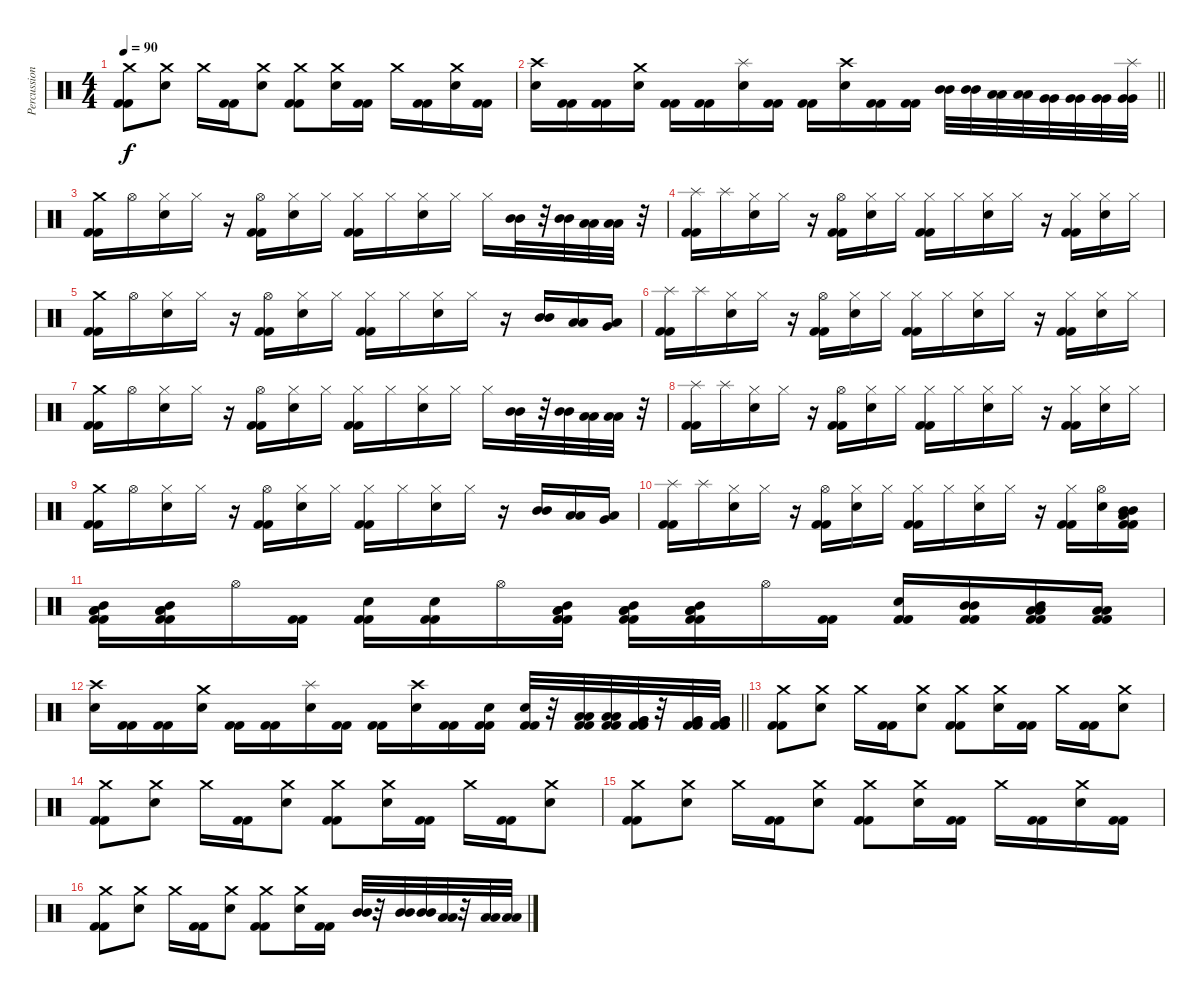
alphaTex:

\track ("Percussion" "Percussion") {instrument percussion}
\staff {score}
\articulation defaults
\ts (4 4)
\tempo 90
\clef neutral
\ks c
("Crash medium (hit)" "Kick (hit) 2" "Kick (hit) 2").8{dy f} ("Crash medium (hit)" "Electric Snare (hit)").8 "Crash medium (hit)".16 ("Kick (hit) 2" "Kick (hit) 2").16 ("Crash medium (hit)" "Electric Snare (hit)").8 ("Crash medium (hit)" "Kick (hit) 2" "Kick (hit) 2").8 ("Crash medium (hit)" "Electric Snare (hit)").16 ("Kick (hit) 2" "Kick (hit) 2").16 "Crash medium (hit)".16 ("Kick (hit) 2" "Kick (hit) 2").16 ("Crash medium (hit)" "Electric Snare (hit)").16 ("Kick (hit) 2" "Kick (hit) 2").16 |
\barLineRight lightlight
("Crash high (hit)" "Electric Snare (hit)").16 ("Kick (hit) 2" "Kick (hit) 2").16 ("Kick (hit) 2" "Kick (hit) 2").16 ("Crash medium (hit)" "Electric Snare (hit)").16 ("Kick (hit) 2" "Kick (hit) 2").16 ("Kick (hit) 2" "Kick (hit) 2").16 ("Splash (hit)" "Electric Snare (hit)").16 ("Kick (hit) 2" "Kick (hit) 2").16 ("Kick (hit) 2" "Kick (hit) 2").16 ("Crash high (hit)" "Electric Snare (hit)").16 ("Kick (hit) 2" "Kick (hit) 2").16 ("Kick (hit) 2" "Kick (hit) 2").16 ("Mid Tom (hit)" "Mid Tom (hit)").32 ("Mid Tom (hit)" "Mid Tom (hit)").32 ("Low Tom (hit)" "Low Tom (hit)").32 ("Low Tom (hit)" "Low Tom (hit)").32 ("Very Low Tom (hit)" "Very Low Tom (hit)").32 ("Very Low Tom (hit)" "Very Low Tom (hit)").32 ("Very Low Tom (hit)" "Very Low Tom (hit)").32 ("Splash (hit)" "Very Low Tom (hit)" "Very Low Tom (hit)").32 |
("Crash medium (hit)" "Kick (hit) 2" "Kick (hit) 2").16 "Hi-Hat (open)".16 ("Hi-Hat (closed)" "Electric Snare (hit)").16 "Hi-Hat (closed)".16 r.16 ("Hi-Hat (open)" "Kick (hit) 2" "Kick (hit) 2").16 ("Hi-Hat (closed)" "Electric Snare (hit)").16 "Hi-Hat (closed)".16 ("Hi-Hat (closed)" "Kick (hit) 2" "Kick (hit) 2").16 "Hi-Hat (closed)".16 ("Hi-Hat (closed)" "Electric Snare (hit)").16 "Hi-Hat (closed)".16 "Hi-Hat (closed)".16 ("Mid Tom (hit)" "Mid Tom (hit)").32 r.32 ("Mid Tom (hit)" "Mid Tom (hit)").32 ("Low Tom (hit)" "Low Tom (hit)").32 ("Low Tom (hit)" "Low Tom (hit)").32 r.32 |
("Splash (hit)" "Kick (hit) 2" "Kick (hit) 2").16 "Splash (hit)".16 ("Hi-Hat (closed)" "Electric Snare (hit)").16 "Hi-Hat (closed)".16 r.16 ("Hi-Hat (open)" "Kick (hit) 2" "Kick (hit) 2").16 ("Hi-Hat (closed)" "Electric Snare (hit)").16 "Hi-Hat (closed)".16 ("Hi-Hat (closed)" "Kick (hit) 2" "Kick (hit) 2").16 "Hi-Hat (closed)".16 ("Hi-Hat (closed)" "Electric Snare (hit)").16 "Hi-Hat (closed)".16 r.16 ("Hi-Hat (closed)" "Kick (hit) 2" "Kick (hit) 2").16 ("Hi-Hat (closed)" "Electric Snare (hit)").16 "Hi-Hat (closed)".16 |
("Crash medium (hit)" "Kick (hit) 2" "Kick (hit) 2").16 "Hi-Hat (open)".16 ("Hi-Hat (closed)" "Electric Snare (hit)").16 "Hi-Hat (closed)".16 r.16 ("Hi-Hat (open)" "Kick (hit) 2" "Kick (hit) 2").16 ("Hi-Hat (closed)" "Electric Snare (hit)").16 "Hi-Hat (closed)".16 ("Hi-Hat (closed)" "Kick (hit) 2" "Kick (hit) 2").16 "Hi-Hat (closed)".16 ("Hi-Hat (closed)" "Electric Snare (hit)").16 "Hi-Hat (closed)".16 r.16 ("Mid Tom (hit)" "Mid Tom (hit)").16 ("Low Tom (hit)" "Low Tom (hit)").16 ("Low Tom (hit)" "Very Low Tom (hit)").16 |
("Splash (hit)" "Kick (hit) 2" "Kick (hit) 2").16 "Splash (hit)".16 ("Hi-Hat (closed)" "Electric Snare (hit)").16 "Hi-Hat (closed)".16 r.16 ("Hi-Hat (open)" "Kick (hit) 2" "Kick (hit) 2").16 ("Hi-Hat (closed)" "Electric Snare (hit)").16 "Hi-Hat (closed)".16 ("Hi-Hat (closed)" "Kick (hit) 2" "Kick (hit) 2").16 "Hi-Hat (closed)".16 ("Hi-Hat (closed)" "Electric Snare (hit)").16 "Hi-Hat (closed)".16 r.16 ("Hi-Hat (closed)" "Kick (hit) 2" "Kick (hit) 2").16 ("Hi-Hat (closed)" "Electric Snare (hit)").16 "Hi-Hat (closed)".16 |
("Crash medium (hit)" "Kick (hit) 2" "Kick (hit) 2").16 "Hi-Hat (open)".16 ("Hi-Hat (closed)" "Electric Snare (hit)").16 "Hi-Hat (closed)".16 r.16 ("Hi-Hat (open)" "Kick (hit) 2" "Kick (hit) 2").16 ("Hi-Hat (closed)" "Electric Snare (hit)").16 "Hi-Hat (closed)".16 ("Hi-Hat (closed)" "Kick (hit) 2" "Kick (hit) 2").16 "Hi-Hat (closed)".16 ("Hi-Hat (closed)" "Electric Snare (hit)").16 "Hi-Hat (closed)".16 "Hi-Hat (closed)".16 ("Mid Tom (hit)" "Mid Tom (hit)").32 r.32 ("Mid Tom (hit)" "Mid Tom (hit)").32 ("Low Tom (hit)" "Low Tom (hit)").32 ("Low Tom (hit)" "Low Tom (hit)").32 r.32 |
("Splash (hit)" "Kick (hit) 2" "Kick (hit) 2").16 "Splash (hit)".16 ("Hi-Hat (closed)" "Electric Snare (hit)").16 "Hi-Hat (closed)".16 r.16 ("Hi-Hat (open)" "Kick (hit) 2" "Kick (hit) 2").16 ("Hi-Hat (closed)" "Electric Snare (hit)").16 "Hi-Hat (closed)".16 ("Hi-Hat (closed)" "Kick (hit) 2" "Kick (hit) 2").16 "Hi-Hat (closed)".16 ("Hi-Hat (closed)" "Electric Snare (hit)").16 "Hi-Hat (closed)".16 r.16 ("Hi-Hat (closed)" "Kick (hit) 2" "Kick (hit) 2").16 ("Hi-Hat (closed)" "Electric Snare (hit)").16 "Hi-Hat (closed)".16 |
("Crash medium (hit)" "Kick (hit) 2" "Kick (hit) 2").16 "Hi-Hat (open)".16 ("Hi-Hat (closed)" "Electric Snare (hit)").16 "Hi-Hat (closed)".16 r.16 ("Hi-Hat (open)" "Kick (hit) 2" "Kick (hit) 2").16 ("Hi-Hat (closed)" "Electric Snare (hit)").16 "Hi-Hat (closed)".16 ("Hi-Hat (closed)" "Kick (hit) 2" "Kick (hit) 2").16 "Hi-Hat (closed)".16 ("Hi-Hat (closed)" "Electric Snare (hit)").16 "Hi-Hat (closed)".16 r.16 ("Mid Tom (hit)" "Mid Tom (hit)").16 ("Low Tom (hit)" "Low Tom (hit)").16 ("Low Tom (hit)" "Very Low Tom (hit)").16 |
("Splash (hit)" "Kick (hit) 2" "Kick (hit) 2").16 "Splash (hit)".16 ("Hi-Hat (closed)" "Electric Snare (hit)").16 "Hi-Hat (closed)".16 r.16 ("Hi-Hat (open)" "Kick (hit) 2" "Kick (hit) 2").16 ("Hi-Hat (closed)" "Electric Snare (hit)").16 "Hi-Hat (closed)".16 ("Hi-Hat (closed)" "Kick (hit) 2" "Kick (hit) 2").16 "Hi-Hat (closed)".16 ("Hi-Hat (closed)" "Electric Snare (hit)").16 "Hi-Hat (closed)".16 r.16 ("Hi-Hat (closed)" "Kick (hit) 2" "Kick (hit) 2").16 ("Hi-Hat (open)" "Electric Snare (hit)").16 ("Mid Tom (hit)" "Mid Tom (hit)" "Low Tom (hit)" "Kick (hit) 2" "Kick (hit) 2").16 |
("Mid Tom (hit)" "Low Tom (hit)" "Low Tom (hit)" "Kick (hit) 2" "Kick (hit) 2").16 ("Mid Tom (hit)" "Low Tom (hit)" "Low Tom (hit)" "Kick (hit) 2" "Kick (hit) 2").16 "Hi-Hat (open)".16 ("Kick (hit) 2" "Kick (hit) 2").16 ("Electric Snare (hit)" "Kick (hit) 2" "Kick (hit) 2").16 ("Electric Snare (hit)" "Kick (hit) 2" "Kick (hit) 2").16 "Hi-Hat (open)".16 ("Mid Tom (hit)" "Low Tom (hit)" "Low Tom (hit)" "Kick (hit) 2" "Kick (hit) 2").16 ("Mid Tom (hit)" "Low Tom (hit)" "Low Tom (hit)" "Kick (hit) 2" "Kick (hit) 2").16 ("Mid Tom (hit)" "Low Tom (hit)" "Low Tom (hit)" "Kick (hit) 2" "Kick (hit) 2").16 "Hi-Hat (open)".16 ("Kick (hit) 2" "Kick (hit) 2").16 ("Electric Snare (hit)" "Kick (hit) 2" "Kick (hit) 2").16 ("Mid Tom (hit)" "Mid Tom (hit)" "Kick (hit) 2" "Kick (hit) 2").16 ("Mid Tom (hit)" "Low Tom (hit)" "Low Tom (hit)" "Kick (hit) 2" "Kick (hit) 2").16 ("Low Tom (hit)" "Low Tom (hit)" "Kick (hit) 2" "Kick (hit) 2").16 |
\barLineRight lightlight
("Crash high (hit)" "Electric Snare (hit)").16 ("Kick (hit) 2" "Kick (hit) 2").16 ("Kick (hit) 2" "Kick (hit) 2").16 ("Crash medium (hit)" "Electric Snare (hit)").16 ("Kick (hit) 2" "Kick (hit) 2").16 ("Kick (hit) 2" "Kick (hit) 2").16 ("Splash (hit)" "Electric Snare (hit)").16 ("Kick (hit) 2" "Kick (hit) 2").16 ("Kick (hit) 2" "Kick (hit) 2").16 ("Crash high (hit)" "Electric Snare (hit)").16 ("Kick (hit) 2" "Kick (hit) 2").16 ("Electric Snare (hit)" "Kick (hit) 2" "Kick (hit) 2").16 ("Electric Snare (hit)" "Kick (hit) 2" "Kick (hit) 2").32 r.32 ("Low Tom (hit)" "Low Tom (hit)" "Kick (hit) 2" "Kick (hit) 2").32 ("Low Tom (hit)" "Low Tom (hit)" "Kick (hit) 2" "Kick (hit) 2").32 ("Very Low Tom (hit)" "Very Low Tom (hit)" "Kick (hit) 2" "Kick (hit) 2").32 r.32 ("Very Low Tom (hit)" "Very Low Tom (hit)" "Kick (hit) 2" "Kick (hit) 2").32 ("Very Low Tom (hit)" "Very Low Tom (hit)" "Kick (hit) 2" "Kick (hit) 2").32 |
\section ("" "")
("Crash medium (hit)" "Kick (hit) 2" "Kick (hit) 2").8 ("Crash medium (hit)" "Electric Snare (hit)").8 "Crash medium (hit)".16 ("Kick (hit) 2" "Kick (hit) 2").16 ("Crash medium (hit)" "Electric Snare (hit)").8 ("Crash medium (hit)" "Kick (hit) 2" "Kick (hit) 2").8 ("Crash medium (hit)" "Electric Snare (hit)").16 ("Kick (hit) 2" "Kick (hit) 2").16 "Crash medium (hit)".16 ("Kick (hit) 2" "Kick (hit) 2").16 ("Crash medium (hit)" "Electric Snare (hit)").8 |
("Crash medium (hit)" "Kick (hit) 2" "Kick (hit) 2").8 ("Crash medium (hit)" "Electric Snare (hit)").8 "Crash medium (hit)".16 ("Kick (hit) 2" "Kick (hit) 2").16 ("Crash medium (hit)" "Electric Snare (hit)").8 ("Crash medium (hit)" "Kick (hit) 2" "Kick (hit) 2").8 ("Crash medium (hit)" "Electric Snare (hit)").16 ("Kick (hit) 2" "Kick (hit) 2").16 "Crash medium (hit)".16 ("Kick (hit) 2" "Kick (hit) 2").16 ("Crash medium (hit)" "Electric Snare (hit)").8 |
("Crash medium (hit)" "Kick (hit) 2" "Kick (hit) 2").8 ("Crash medium (hit)" "Electric Snare (hit)").8 "Crash medium (hit)".16 ("Kick (hit) 2" "Kick (hit) 2").16 ("Crash medium (hit)" "Electric Snare (hit)").8 ("Crash medium (hit)" "Kick (hit) 2" "Kick (hit) 2").8 ("Crash medium (hit)" "Electric Snare (hit)").16 ("Kick (hit) 2" "Kick (hit) 2").16 "Crash medium (hit)".16 ("Kick (hit) 2" "Kick (hit) 2").16 ("Crash medium (hit)" "Electric Snare (hit)").16 ("Kick (hit) 2" "Kick (hit) 2").16 |
("Crash medium (hit)" "Kick (hit) 2" "Kick (hit) 2").8 ("Crash medium (hit)" "Electric Snare (hit)").8 "Crash medium (hit)".16 ("Kick (hit) 2" "Kick (hit) 2").16 ("Crash medium (hit)" "Electric Snare (hit)").8 ("Crash medium (hit)" "Kick (hit) 2" "Kick (hit) 2").8 ("Crash medium (hit)" "Electric Snare (hit)").16 ("Kick (hit) 2" "Kick (hit) 2").16 ("Mid Tom (hit)" "Mid Tom (hit)").32 r.32 ("Mid Tom (hit)" "Mid Tom (hit)").32 ("Mid Tom (hit)" "Mid Tom (hit)").32 ("Low Tom (hit)" "Low Tom (hit)").32 r.32 ("Low Tom (hit)" "Low Tom (hit)").32 ("Low Tom (hit)" "Low Tom (hit)").32
